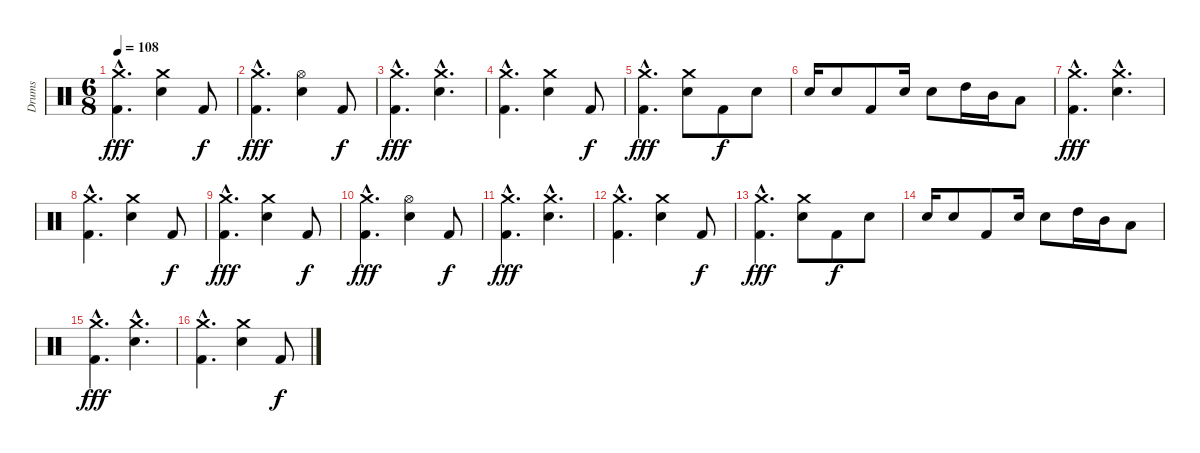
\track ("Drums" "Drums") {instrument percussion}
\staff {score}
\articulation defaults
\ts (6 8)
\tempo 108
\clef neutral
\ks c
("Crash medium (hit)"{hac} "Kick (hit) 2"{hac}).4{d dy fff} ("Crash medium (hit)" "Snare (hit) 2").4 "Kick (hit) 2".8{dy f} |
("Crash medium (hit)"{hac} "Kick (hit) 2"{hac}).4{d dy fff} ("Hi-Hat (open)" "Snare (hit) 2").4 "Kick (hit) 2".8{dy f} |
("Crash medium (hit)"{hac} "Kick (hit) 2"{hac}).4{d dy fff} ("Crash medium (hit)"{hac} "Snare (hit) 2"{hac}).4{d} |
("Crash medium (hit)"{hac} "Kick (hit) 2"{hac}).4{d} ("Crash medium (hit)" "Snare (hit) 2").4 "Kick (hit) 2".8{dy f} |
("Crash medium (hit)"{hac} "Kick (hit) 2"{hac}).4{d dy fff} ("Crash medium (hit)" "Snare (hit) 2").8 "Kick (hit) 2".8{dy f} "Snare (hit) 2".8 |
"Snare (hit) 2".16 "Snare (hit) 2".8 "Kick (hit) 2".8 "Snare (hit) 2".16 "Snare (hit) 2".8 "High Tom (hit)".16 "Mid Tom (hit)".16 "Low Tom (hit)".8 |
("Crash medium (hit)"{hac} "Kick (hit) 2"{hac}).4{d dy fff} ("Crash medium (hit)"{hac} "Snare (hit) 2"{hac}).4{d} |
("Crash medium (hit)"{hac} "Kick (hit) 2"{hac}).4{d} ("Crash medium (hit)" "Snare (hit) 2").4 "Kick (hit) 2".8{dy f} |
("Crash medium (hit)"{hac} "Kick (hit) 2"{hac}).4{d dy fff} ("Crash medium (hit)" "Snare (hit) 2").4 "Kick (hit) 2".8{dy f} |
("Crash medium (hit)"{hac} "Kick (hit) 2"{hac}).4{d dy fff} ("Hi-Hat (open)" "Snare (hit) 2").4 "Kick (hit) 2".8{dy f} |
("Crash medium (hit)"{hac} "Kick (hit) 2"{hac}).4{d dy fff} ("Crash medium (hit)"{hac} "Snare (hit) 2"{hac}).4{d} |
("Crash medium (hit)"{hac} "Kick (hit) 2"{hac}).4{d} ("Crash medium (hit)" "Snare (hit) 2").4 "Kick (hit) 2".8{dy f} |
("Crash medium (hit)"{hac} "Kick (hit) 2"{hac}).4{d dy fff} ("Crash medium (hit)" "Snare (hit) 2").8 "Kick (hit) 2".8{dy f} "Snare (hit) 2".8 |
"Snare (hit) 2".16 "Snare (hit) 2".8 "Kick (hit) 2".8 "Snare (hit) 2".16 "Snare (hit) 2".8 "High Tom (hit)".16 "Mid Tom (hit)".16 "Low Tom (hit)".8 |
("Crash medium (hit)"{hac} "Kick (hit) 2"{hac}).4{d dy fff} ("Crash medium (hit)"{hac} "Snare (hit) 2"{hac}).4{d} |
("Crash medium (hit)"{hac} "Kick (hit) 2"{hac}).4{d} ("Crash medium (hit)" "Snare (hit) 2").4 "Kick (hit) 2".8{dy f}
